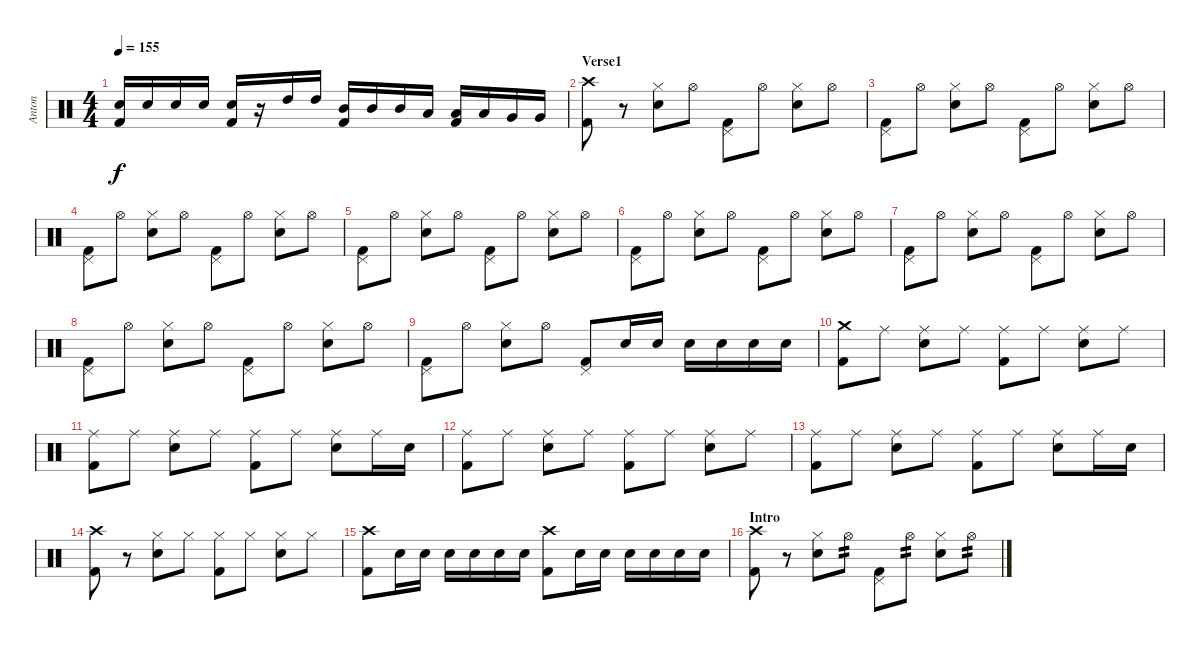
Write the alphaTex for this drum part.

\track ("Anton" "Anton") {instrument percussion}
\staff {score}
\articulation defaults
\ts (4 4)
\tempo 155
\clef neutral
\ks c
("Electric Snare (hit)" "Kick (hit) 2").16{dy f} "Electric Snare (hit)".16 "Electric Snare (hit)".16 "Electric Snare (hit)".16 ("Electric Snare (hit)" "Kick (hit) 2").16 r.16 "High Tom (hit)".16 "High Tom (hit)".16 ("Mid Tom (hit)" "Kick (hit) 2").16 "Mid Tom (hit)".16 "Mid Tom (hit)".16 "Low Tom (hit)".16 ("Low Tom (hit)" "Kick (hit) 2").16 "Low Tom (hit)".16 "Very Low Tom (hit)".16 "Very Low Tom (hit)".16 |
\section ("" "Verse1")
("Kick (hit) 2" "Crash high (hit)").8 r.8 ("Snare (hit) 2" "Hi-Hat (closed)").8 "Hi-Hat (open)".8 ("Kick (hit) 2" "Pedal Hi-Hat (hit)").8 "Hi-Hat (open)".8 ("Snare (hit) 2" "Hi-Hat (closed)").8 "Hi-Hat (open)".8 |
("Kick (hit) 2" "Pedal Hi-Hat (hit)").8 "Hi-Hat (open)".8 ("Snare (hit) 2" "Hi-Hat (closed)").8 "Hi-Hat (open)".8 ("Kick (hit) 2" "Pedal Hi-Hat (hit)").8 "Hi-Hat (open)".8 ("Snare (hit) 2" "Hi-Hat (closed)").8 "Hi-Hat (open)".8 |
("Kick (hit) 2" "Pedal Hi-Hat (hit)").8 "Hi-Hat (open)".8 ("Snare (hit) 2" "Hi-Hat (closed)").8 "Hi-Hat (open)".8 ("Kick (hit) 2" "Pedal Hi-Hat (hit)").8 "Hi-Hat (open)".8 ("Snare (hit) 2" "Hi-Hat (closed)").8 "Hi-Hat (open)".8 |
("Kick (hit) 2" "Pedal Hi-Hat (hit)").8 "Hi-Hat (open)".8 ("Snare (hit) 2" "Hi-Hat (closed)").8 "Hi-Hat (open)".8 ("Kick (hit) 2" "Pedal Hi-Hat (hit)").8 "Hi-Hat (open)".8 ("Snare (hit) 2" "Hi-Hat (closed)").8 "Hi-Hat (open)".8 |
("Kick (hit) 2" "Pedal Hi-Hat (hit)").8 "Hi-Hat (open)".8 ("Snare (hit) 2" "Hi-Hat (closed)").8 "Hi-Hat (open)".8 ("Kick (hit) 2" "Pedal Hi-Hat (hit)").8 "Hi-Hat (open)".8 ("Snare (hit) 2" "Hi-Hat (closed)").8 "Hi-Hat (open)".8 |
("Kick (hit) 2" "Pedal Hi-Hat (hit)").8 "Hi-Hat (open)".8 ("Snare (hit) 2" "Hi-Hat (closed)").8 "Hi-Hat (open)".8 ("Kick (hit) 2" "Pedal Hi-Hat (hit)").8 "Hi-Hat (open)".8 ("Snare (hit) 2" "Hi-Hat (closed)").8 "Hi-Hat (open)".8 |
("Kick (hit) 2" "Pedal Hi-Hat (hit)").8 "Hi-Hat (open)".8 ("Snare (hit) 2" "Hi-Hat (closed)").8 "Hi-Hat (open)".8 ("Kick (hit) 2" "Pedal Hi-Hat (hit)").8 "Hi-Hat (open)".8 ("Snare (hit) 2" "Hi-Hat (closed)").8 "Hi-Hat (open)".8 |
("Kick (hit) 2" "Pedal Hi-Hat (hit)").8 "Hi-Hat (open)".8 ("Snare (hit) 2" "Hi-Hat (closed)").8 "Hi-Hat (open)".8 ("Kick (hit) 2" "Pedal Hi-Hat (hit)").8 "Snare (hit) 2".16 "Snare (hit) 2".16 "Snare (hit) 2".16 "Snare (hit) 2".16 "Snare (hit) 2".16 "Snare (hit) 2".16 |
("Kick (hit) 2" "Crash medium (hit)").8 "Ride (middle)".8 ("Snare (hit) 2" "Ride (middle)").8 "Ride (middle)".8 ("Kick (hit) 2" "Ride (middle)").8 "Ride (middle)".8 ("Snare (hit) 2" "Ride (middle)").8 "Ride (middle)".8 |
("Kick (hit) 2" "Ride (middle)").8 "Ride (middle)".8 ("Snare (hit) 2" "Ride (middle)").8 "Ride (middle)".8 ("Kick (hit) 2" "Ride (middle)").8 "Ride (middle)".8 ("Snare (hit) 2" "Ride (middle)").8 "Ride (middle)".16 "Snare (hit) 2".16 |
("Kick (hit) 2" "Ride (middle)").8 "Ride (middle)".8 ("Snare (hit) 2" "Ride (middle)").8 "Ride (middle)".8 ("Kick (hit) 2" "Ride (middle)").8 "Ride (middle)".8 ("Snare (hit) 2" "Ride (middle)").8 "Ride (middle)".8 |
("Kick (hit) 2" "Ride (middle)").8 "Ride (middle)".8 ("Snare (hit) 2" "Ride (middle)").8 "Ride (middle)".8 ("Kick (hit) 2" "Ride (middle)").8 "Ride (middle)".8 ("Snare (hit) 2" "Ride (middle)").8 "Ride (middle)".16 "Snare (hit) 2".16 |
("Kick (hit) 2" "Crash high (hit)").8 r.8 ("Snare (hit) 2" "Hi-Hat (closed)").8 "Hi-Hat (closed)".8 ("Kick (hit) 2" "Hi-Hat (closed)").8 "Hi-Hat (closed)".8 ("Snare (hit) 2" "Hi-Hat (closed)").8 "Hi-Hat (closed)".8 |
("Kick (hit) 2" "Crash high (hit)").8 "Snare (hit) 2".16 "Snare (hit) 2".16 "Snare (hit) 2".16 "Snare (hit) 2".16 "Snare (hit) 2".16 "Snare (hit) 2".16 ("Kick (hit) 2" "Crash high (hit)").8 "Snare (hit) 2".16 "Snare (hit) 2".16 "Snare (hit) 2".16 "Snare (hit) 2".16 "Snare (hit) 2".16 "Snare (hit) 2".16 |
\section ("" "Intro")
("Kick (hit) 2" "Crash high (hit)").8 r.8 ("Electric Snare (hit)" "Hi-Hat (closed)").8 "Hi-Hat (open)".8{tp 2} ("Kick (hit) 2" "Pedal Hi-Hat (hit)").8 "Hi-Hat (open)".8{tp 2} ("Electric Snare (hit)" "Hi-Hat (closed)").8 "Hi-Hat (open)".8{tp 2}
